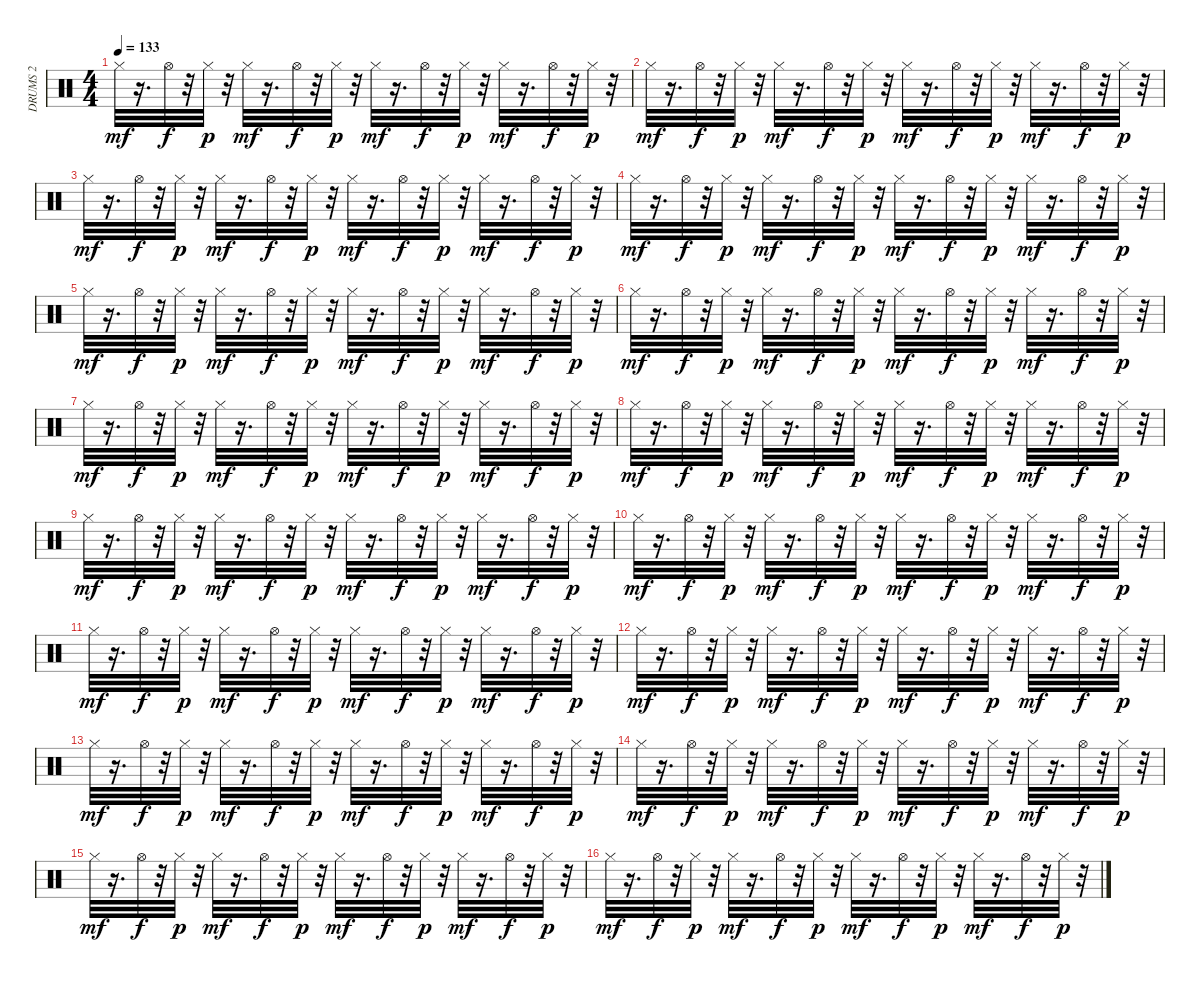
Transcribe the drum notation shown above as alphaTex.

\track ("DRUMS 2                             " "DRUMS 2   ") {instrument percussion}
\staff {score}
\articulation defaults
\ts (4 4)
\tempo 133
\clef neutral
\ks c "Hi-Hat (closed)".32{dy mf}
r.16{d} "Hi-Hat (open)".32{dy f} r.32 "Hi-Hat (closed)".32{dy p} r.32 "Hi-Hat (closed)".32{dy mf} r.16{d} "Hi-Hat (open)".32{dy f} r.32 "Hi-Hat (closed)".32{dy p} r.32 "Hi-Hat (closed)".32{dy mf} r.16{d} "Hi-Hat (open)".32{dy f} r.32 "Hi-Hat (closed)".32{dy p} r.32 "Hi-Hat (closed)".32{dy mf} r.16{d} "Hi-Hat (open)".32{dy f} r.32 "Hi-Hat (closed)".32{dy p} r.32 |
"Hi-Hat (closed)".32{dy mf} r.16{d} "Hi-Hat (open)".32{dy f} r.32 "Hi-Hat (closed)".32{dy p} r.32 "Hi-Hat (closed)".32{dy mf} r.16{d} "Hi-Hat (open)".32{dy f} r.32 "Hi-Hat (closed)".32{dy p} r.32 "Hi-Hat (closed)".32{dy mf} r.16{d} "Hi-Hat (open)".32{dy f} r.32 "Hi-Hat (closed)".32{dy p} r.32 "Hi-Hat (closed)".32{dy mf} r.16{d} "Hi-Hat (open)".32{dy f} r.32 "Hi-Hat (closed)".32{dy p} r.32 |
"Hi-Hat (closed)".32{dy mf} r.16{d} "Hi-Hat (open)".32{dy f} r.32 "Hi-Hat (closed)".32{dy p} r.32 "Hi-Hat (closed)".32{dy mf} r.16{d} "Hi-Hat (open)".32{dy f} r.32 "Hi-Hat (closed)".32{dy p} r.32 "Hi-Hat (closed)".32{dy mf} r.16{d} "Hi-Hat (open)".32{dy f} r.32 "Hi-Hat (closed)".32{dy p} r.32 "Hi-Hat (closed)".32{dy mf} r.16{d} "Hi-Hat (open)".32{dy f} r.32 "Hi-Hat (closed)".32{dy p} r.32 |
"Hi-Hat (closed)".32{dy mf} r.16{d} "Hi-Hat (open)".32{dy f} r.32 "Hi-Hat (closed)".32{dy p} r.32 "Hi-Hat (closed)".32{dy mf} r.16{d} "Hi-Hat (open)".32{dy f} r.32 "Hi-Hat (closed)".32{dy p} r.32 "Hi-Hat (closed)".32{dy mf} r.16{d} "Hi-Hat (open)".32{dy f} r.32 "Hi-Hat (closed)".32{dy p} r.32 "Hi-Hat (closed)".32{dy mf} r.16{d} "Hi-Hat (open)".32{dy f} r.32 "Hi-Hat (closed)".32{dy p} r.32 |
"Hi-Hat (closed)".32{dy mf} r.16{d} "Hi-Hat (open)".32{dy f} r.32 "Hi-Hat (closed)".32{dy p} r.32 "Hi-Hat (closed)".32{dy mf} r.16{d} "Hi-Hat (open)".32{dy f} r.32 "Hi-Hat (closed)".32{dy p} r.32 "Hi-Hat (closed)".32{dy mf} r.16{d} "Hi-Hat (open)".32{dy f} r.32 "Hi-Hat (closed)".32{dy p} r.32 "Hi-Hat (closed)".32{dy mf} r.16{d} "Hi-Hat (open)".32{dy f} r.32 "Hi-Hat (closed)".32{dy p} r.32 |
"Hi-Hat (closed)".32{dy mf} r.16{d} "Hi-Hat (open)".32{dy f} r.32 "Hi-Hat (closed)".32{dy p} r.32 "Hi-Hat (closed)".32{dy mf} r.16{d} "Hi-Hat (open)".32{dy f} r.32 "Hi-Hat (closed)".32{dy p} r.32 "Hi-Hat (closed)".32{dy mf} r.16{d} "Hi-Hat (open)".32{dy f} r.32 "Hi-Hat (closed)".32{dy p} r.32 "Hi-Hat (closed)".32{dy mf} r.16{d} "Hi-Hat (open)".32{dy f} r.32 "Hi-Hat (closed)".32{dy p} r.32 |
"Hi-Hat (closed)".32{dy mf} r.16{d} "Hi-Hat (open)".32{dy f} r.32 "Hi-Hat (closed)".32{dy p} r.32 "Hi-Hat (closed)".32{dy mf} r.16{d} "Hi-Hat (open)".32{dy f} r.32 "Hi-Hat (closed)".32{dy p} r.32 "Hi-Hat (closed)".32{dy mf} r.16{d} "Hi-Hat (open)".32{dy f} r.32 "Hi-Hat (closed)".32{dy p} r.32 "Hi-Hat (closed)".32{dy mf} r.16{d} "Hi-Hat (open)".32{dy f} r.32 "Hi-Hat (closed)".32{dy p} r.32 |
"Hi-Hat (closed)".32{dy mf} r.16{d} "Hi-Hat (open)".32{dy f} r.32 "Hi-Hat (closed)".32{dy p} r.32 "Hi-Hat (closed)".32{dy mf} r.16{d} "Hi-Hat (open)".32{dy f} r.32 "Hi-Hat (closed)".32{dy p} r.32 "Hi-Hat (closed)".32{dy mf} r.16{d} "Hi-Hat (open)".32{dy f} r.32 "Hi-Hat (closed)".32{dy p} r.32 "Hi-Hat (closed)".32{dy mf} r.16{d} "Hi-Hat (open)".32{dy f} r.32 "Hi-Hat (closed)".32{dy p} r.32 |
"Hi-Hat (closed)".32{dy mf} r.16{d} "Hi-Hat (open)".32{dy f} r.32 "Hi-Hat (closed)".32{dy p} r.32 "Hi-Hat (closed)".32{dy mf} r.16{d} "Hi-Hat (open)".32{dy f} r.32 "Hi-Hat (closed)".32{dy p} r.32 "Hi-Hat (closed)".32{dy mf} r.16{d} "Hi-Hat (open)".32{dy f} r.32 "Hi-Hat (closed)".32{dy p} r.32 "Hi-Hat (closed)".32{dy mf} r.16{d} "Hi-Hat (open)".32{dy f} r.32 "Hi-Hat (closed)".32{dy p} r.32 |
"Hi-Hat (closed)".32{dy mf} r.16{d} "Hi-Hat (open)".32{dy f} r.32 "Hi-Hat (closed)".32{dy p} r.32 "Hi-Hat (closed)".32{dy mf} r.16{d} "Hi-Hat (open)".32{dy f} r.32 "Hi-Hat (closed)".32{dy p} r.32 "Hi-Hat (closed)".32{dy mf} r.16{d} "Hi-Hat (open)".32{dy f} r.32 "Hi-Hat (closed)".32{dy p} r.32 "Hi-Hat (closed)".32{dy mf} r.16{d} "Hi-Hat (open)".32{dy f} r.32 "Hi-Hat (closed)".32{dy p} r.32 |
"Hi-Hat (closed)".32{dy mf} r.16{d} "Hi-Hat (open)".32{dy f} r.32 "Hi-Hat (closed)".32{dy p} r.32 "Hi-Hat (closed)".32{dy mf} r.16{d} "Hi-Hat (open)".32{dy f} r.32 "Hi-Hat (closed)".32{dy p} r.32 "Hi-Hat (closed)".32{dy mf} r.16{d} "Hi-Hat (open)".32{dy f} r.32 "Hi-Hat (closed)".32{dy p} r.32 "Hi-Hat (closed)".32{dy mf} r.16{d} "Hi-Hat (open)".32{dy f} r.32 "Hi-Hat (closed)".32{dy p} r.32 |
"Hi-Hat (closed)".32{dy mf} r.16{d} "Hi-Hat (open)".32{dy f} r.32 "Hi-Hat (closed)".32{dy p} r.32 "Hi-Hat (closed)".32{dy mf} r.16{d} "Hi-Hat (open)".32{dy f} r.32 "Hi-Hat (closed)".32{dy p} r.32 "Hi-Hat (closed)".32{dy mf} r.16{d} "Hi-Hat (open)".32{dy f} r.32 "Hi-Hat (closed)".32{dy p} r.32 "Hi-Hat (closed)".32{dy mf} r.16{d} "Hi-Hat (open)".32{dy f} r.32 "Hi-Hat (closed)".32{dy p} r.32 |
"Hi-Hat (closed)".32{dy mf} r.16{d} "Hi-Hat (open)".32{dy f} r.32 "Hi-Hat (closed)".32{dy p} r.32 "Hi-Hat (closed)".32{dy mf} r.16{d} "Hi-Hat (open)".32{dy f} r.32 "Hi-Hat (closed)".32{dy p} r.32 "Hi-Hat (closed)".32{dy mf} r.16{d} "Hi-Hat (open)".32{dy f} r.32 "Hi-Hat (closed)".32{dy p} r.32 "Hi-Hat (closed)".32{dy mf} r.16{d} "Hi-Hat (open)".32{dy f} r.32 "Hi-Hat (closed)".32{dy p} r.32 |
"Hi-Hat (closed)".32{dy mf} r.16{d} "Hi-Hat (open)".32{dy f} r.32 "Hi-Hat (closed)".32{dy p} r.32 "Hi-Hat (closed)".32{dy mf} r.16{d} "Hi-Hat (open)".32{dy f} r.32 "Hi-Hat (closed)".32{dy p} r.32 "Hi-Hat (closed)".32{dy mf} r.16{d} "Hi-Hat (open)".32{dy f} r.32 "Hi-Hat (closed)".32{dy p} r.32 "Hi-Hat (closed)".32{dy mf} r.16{d} "Hi-Hat (open)".32{dy f} r.32 "Hi-Hat (closed)".32{dy p} r.32 |
"Hi-Hat (closed)".32{dy mf} r.16{d} "Hi-Hat (open)".32{dy f} r.32 "Hi-Hat (closed)".32{dy p} r.32 "Hi-Hat (closed)".32{dy mf} r.16{d} "Hi-Hat (open)".32{dy f} r.32 "Hi-Hat (closed)".32{dy p} r.32 "Hi-Hat (closed)".32{dy mf} r.16{d} "Hi-Hat (open)".32{dy f} r.32 "Hi-Hat (closed)".32{dy p} r.32 "Hi-Hat (closed)".32{dy mf} r.16{d} "Hi-Hat (open)".32{dy f} r.32 "Hi-Hat (closed)".32{dy p} r.32 |
"Hi-Hat (closed)".32{dy mf} r.16{d} "Hi-Hat (open)".32{dy f} r.32 "Hi-Hat (closed)".32{dy p} r.32 "Hi-Hat (closed)".32{dy mf} r.16{d} "Hi-Hat (open)".32{dy f} r.32 "Hi-Hat (closed)".32{dy p} r.32 "Hi-Hat (closed)".32{dy mf} r.16{d} "Hi-Hat (open)".32{dy f} r.32 "Hi-Hat (closed)".32{dy p} r.32 "Hi-Hat (closed)".32{dy mf} r.16{d} "Hi-Hat (open)".32{dy f} r.32 "Hi-Hat (closed)".32{dy p} r.32
